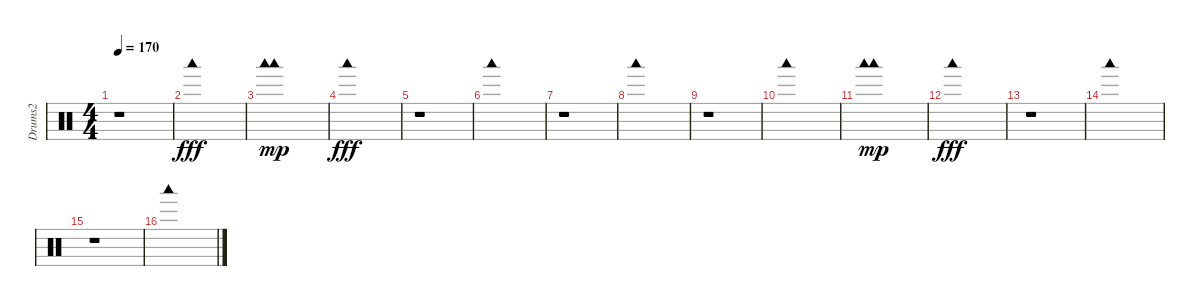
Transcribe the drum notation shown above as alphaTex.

\track ("Drums2" "Drums2") {instrument percussion}
\staff {score}
\articulation defaults
\ts (4 4)
\tempo 170
\clef neutral
\ks c
r.1{dy fff} |
"Woodblock low (hit)".1 |
("Woodblock low (hit)" "Woodblock low (hit)").1{dy mp} |
"Woodblock low (hit)".1{dy fff} |
r.1 |
"Woodblock low (hit)".1 |
r.1 |
"Woodblock low (hit)".1 |
r.1 |
"Woodblock low (hit)".1 |
("Woodblock low (hit)" "Woodblock low (hit)").1{dy mp} |
"Woodblock low (hit)".1{dy fff} |
r.1 |
"Woodblock low (hit)".1 |
r.1 |
"Woodblock low (hit)".1
